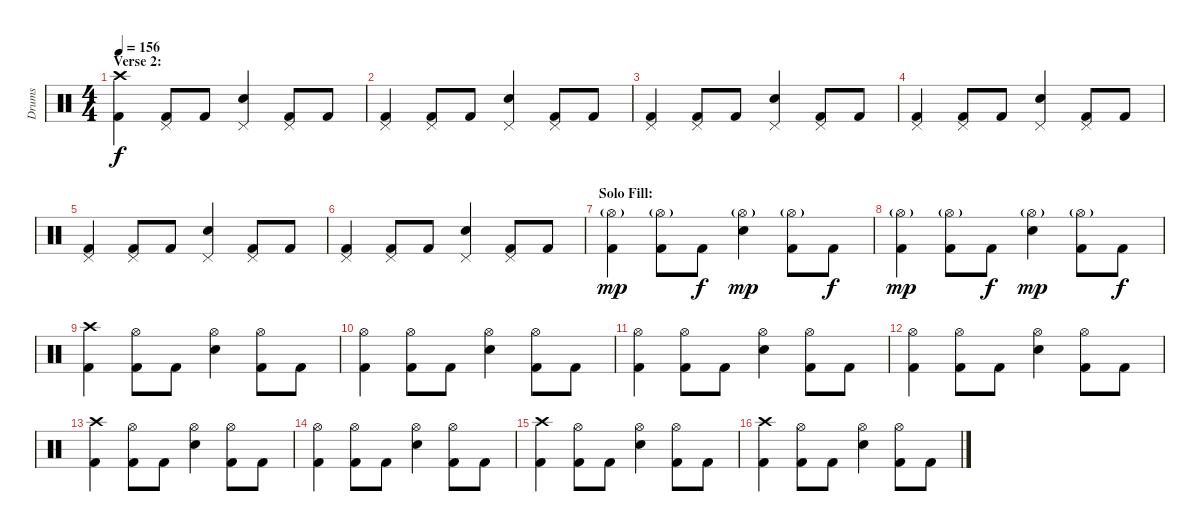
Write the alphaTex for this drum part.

\track ("Drums" "Drums") {instrument percussion}
\staff {score}
\articulation defaults
\ts (4 4)
\section ("" "Verse 2:")
\tempo 156
\clef neutral
\ks c
("Crash high (hit)" "Kick (hit) 2").4{dy f} ("Pedal Hi-Hat (hit)" "Kick (hit) 2").8 "Kick (hit) 2".8 ("Pedal Hi-Hat (hit)" "Electric Snare (hit)").4 ("Pedal Hi-Hat (hit)" "Kick (hit) 2").8 "Kick (hit) 2".8 |
("Pedal Hi-Hat (hit)" "Kick (hit) 2").4 ("Pedal Hi-Hat (hit)" "Kick (hit) 2").8 "Kick (hit) 2".8 ("Pedal Hi-Hat (hit)" "Electric Snare (hit)").4 ("Pedal Hi-Hat (hit)" "Kick (hit) 2").8 "Kick (hit) 2".8 |
("Pedal Hi-Hat (hit)" "Kick (hit) 2").4 ("Pedal Hi-Hat (hit)" "Kick (hit) 2").8 "Kick (hit) 2".8 ("Pedal Hi-Hat (hit)" "Electric Snare (hit)").4 ("Pedal Hi-Hat (hit)" "Kick (hit) 2").8 "Kick (hit) 2".8 |
("Pedal Hi-Hat (hit)" "Kick (hit) 2").4 ("Pedal Hi-Hat (hit)" "Kick (hit) 2").8 "Kick (hit) 2".8 ("Pedal Hi-Hat (hit)" "Electric Snare (hit)").4 ("Pedal Hi-Hat (hit)" "Kick (hit) 2").8 "Kick (hit) 2".8 |
("Pedal Hi-Hat (hit)" "Kick (hit) 2").4 ("Pedal Hi-Hat (hit)" "Kick (hit) 2").8 "Kick (hit) 2".8 ("Pedal Hi-Hat (hit)" "Electric Snare (hit)").4 ("Pedal Hi-Hat (hit)" "Kick (hit) 2").8 "Kick (hit) 2".8 |
("Pedal Hi-Hat (hit)" "Kick (hit) 2").4 ("Pedal Hi-Hat (hit)" "Kick (hit) 2").8 "Kick (hit) 2".8 ("Pedal Hi-Hat (hit)" "Electric Snare (hit)").4 ("Pedal Hi-Hat (hit)" "Kick (hit) 2").8 "Kick (hit) 2".8 |
\section ("" "Solo Fill:")
("Hi-Hat (open)"{g} "Kick (hit) 2").4{dy mp} ("Hi-Hat (open)"{g} "Kick (hit) 2").8 "Kick (hit) 2".8{dy f} ("Hi-Hat (open)"{g} "Electric Snare (hit)").4{dy mp} ("Hi-Hat (open)"{g} "Kick (hit) 2").8 "Kick (hit) 2".8{dy f} |
("Hi-Hat (open)"{g} "Kick (hit) 2").4{dy mp} ("Hi-Hat (open)"{g} "Kick (hit) 2").8 "Kick (hit) 2".8{dy f} ("Hi-Hat (open)"{g} "Electric Snare (hit)").4{dy mp} ("Hi-Hat (open)"{g} "Kick (hit) 2").8 "Kick (hit) 2".8{dy f} |
("Crash high (hit)" "Kick (hit) 2").4 ("Hi-Hat (open)" "Kick (hit) 2").8 "Kick (hit) 2".8 ("Hi-Hat (open)" "Electric Snare (hit)").4 ("Hi-Hat (open)" "Kick (hit) 2").8 "Kick (hit) 2".8 |
("Hi-Hat (open)" "Kick (hit) 2").4 ("Hi-Hat (open)" "Kick (hit) 2").8 "Kick (hit) 2".8 ("Hi-Hat (open)" "Electric Snare (hit)").4 ("Hi-Hat (open)" "Kick (hit) 2").8 "Kick (hit) 2".8 |
("Hi-Hat (open)" "Kick (hit) 2").4 ("Hi-Hat (open)" "Kick (hit) 2").8 "Kick (hit) 2".8 ("Hi-Hat (open)" "Electric Snare (hit)").4 ("Hi-Hat (open)" "Kick (hit) 2").8 "Kick (hit) 2".8 |
("Hi-Hat (open)" "Kick (hit) 2").4 ("Hi-Hat (open)" "Kick (hit) 2").8 "Kick (hit) 2".8 ("Hi-Hat (open)" "Electric Snare (hit)").4 ("Hi-Hat (open)" "Kick (hit) 2").8 "Kick (hit) 2".8 |
("Crash high (hit)" "Kick (hit) 2").4 ("Hi-Hat (open)" "Kick (hit) 2").8 "Kick (hit) 2".8 ("Hi-Hat (open)" "Electric Snare (hit)").4 ("Hi-Hat (open)" "Kick (hit) 2").8 "Kick (hit) 2".8 |
("Hi-Hat (open)" "Kick (hit) 2").4 ("Hi-Hat (open)" "Kick (hit) 2").8 "Kick (hit) 2".8 ("Hi-Hat (open)" "Electric Snare (hit)").4 ("Hi-Hat (open)" "Kick (hit) 2").8 "Kick (hit) 2".8 |
("Crash high (hit)" "Kick (hit) 2").4 ("Hi-Hat (open)" "Kick (hit) 2").8 "Kick (hit) 2".8 ("Hi-Hat (open)" "Electric Snare (hit)").4 ("Hi-Hat (open)" "Kick (hit) 2").8 "Kick (hit) 2".8 |
("Crash high (hit)" "Kick (hit) 2").4 ("Hi-Hat (open)" "Kick (hit) 2").8 "Kick (hit) 2".8 ("Hi-Hat (open)" "Electric Snare (hit)").4 ("Hi-Hat (open)" "Kick (hit) 2").8 "Kick (hit) 2".8
